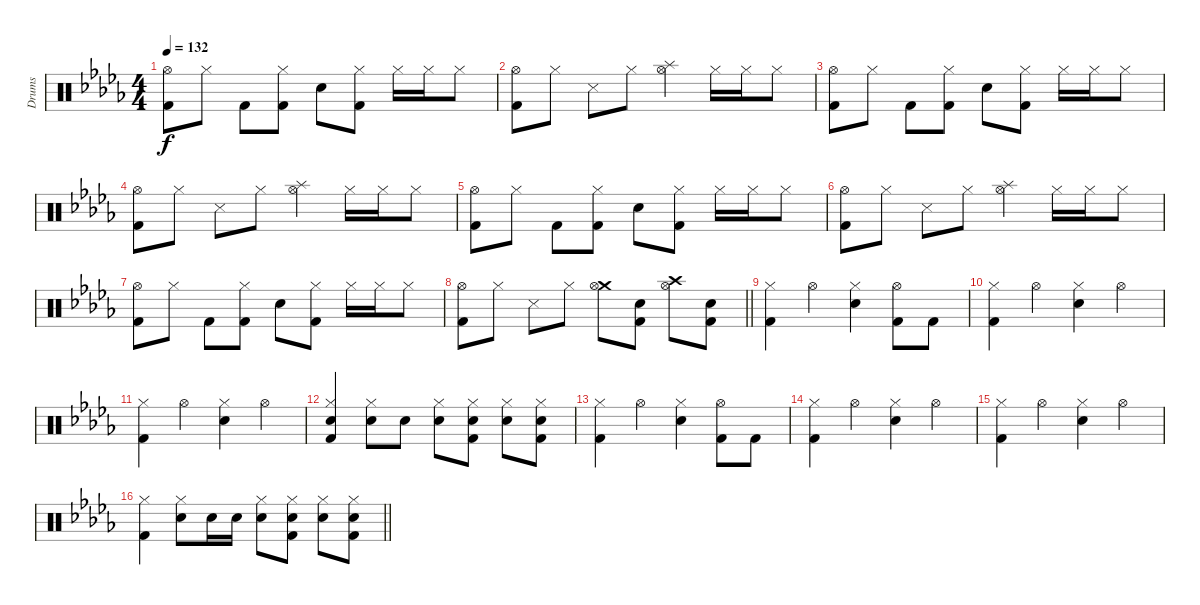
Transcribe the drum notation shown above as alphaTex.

\track ("Drums" "Drums") {instrument percussion}
\staff {score}
\articulation defaults
\ts (4 4)
\tempo 132
\clef neutral
\ks db
("Kick (hit) 2" "Hi-Hat (open)").8{dy f} "Hi-Hat (closed)".8 "Kick (hit) 2".8 ("Kick (hit) 2" "Hi-Hat (closed)").8 "Snare (hit) 2".8 ("Kick (hit) 2" "Hi-Hat (closed)").8 "Hi-Hat (closed)".16 "Hi-Hat (closed)".16 "Hi-Hat (closed)".8 |
("Hi-Hat (open)" "Kick (hit) 2").8 "Hi-Hat (closed)".8 "Snare (side stick) 3".8 "Hi-Hat (closed)".8 ("Splash (hit)" "Hi-Hat (open)").4 "Hi-Hat (closed)".16 "Hi-Hat (closed)".16 "Hi-Hat (closed)".8 |
("Kick (hit) 2" "Hi-Hat (open)").8 "Hi-Hat (closed)".8 "Kick (hit) 2".8 ("Kick (hit) 2" "Hi-Hat (closed)").8 "Snare (hit) 2".8 ("Kick (hit) 2" "Hi-Hat (closed)").8 "Hi-Hat (closed)".16 "Hi-Hat (closed)".16 "Hi-Hat (closed)".8 |
("Hi-Hat (open)" "Kick (hit) 2").8 "Hi-Hat (closed)".8 "Snare (side stick) 3".8 "Hi-Hat (closed)".8 ("Splash (hit)" "Hi-Hat (open)").4 "Hi-Hat (closed)".16 "Hi-Hat (closed)".16 "Hi-Hat (closed)".8 |
("Kick (hit) 2" "Hi-Hat (open)").8 "Hi-Hat (closed)".8 "Kick (hit) 2".8 ("Kick (hit) 2" "Hi-Hat (closed)").8 "Snare (hit) 2".8 ("Kick (hit) 2" "Hi-Hat (closed)").8 "Hi-Hat (closed)".16 "Hi-Hat (closed)".16 "Hi-Hat (closed)".8 |
("Hi-Hat (open)" "Kick (hit) 2").8 "Hi-Hat (closed)".8 "Snare (side stick) 3".8 "Hi-Hat (closed)".8 ("Splash (hit)" "Hi-Hat (open)").4 "Hi-Hat (closed)".16 "Hi-Hat (closed)".16 "Hi-Hat (closed)".8 |
("Kick (hit) 2" "Hi-Hat (open)").8 "Hi-Hat (closed)".8 "Kick (hit) 2".8 ("Kick (hit) 2" "Hi-Hat (closed)").8 "Snare (hit) 2".8 ("Kick (hit) 2" "Hi-Hat (closed)").8 "Hi-Hat (closed)".16 "Hi-Hat (closed)".16 "Hi-Hat (closed)".8 |
\barLineRight lightlight
("Hi-Hat (open)" "Kick (hit) 2").8 "Hi-Hat (closed)".8 "Snare (side stick) 3".8 "Hi-Hat (closed)".8 ("Crash medium (hit)" "Hi-Hat (open)").8 ("Kick (hit) 2" "Snare (hit) 2").8 ("Crash high (hit)" "Hi-Hat (open)").8 ("Kick (hit) 2" "Snare (hit) 2").8 |
("Kick (hit) 2" "Hi-Hat (closed)").4 "Hi-Hat (open)".4 ("Snare (hit) 2" "Hi-Hat (closed)").4 ("Hi-Hat (open)" "Kick (hit) 2").8 "Kick (hit) 2".8 |
("Kick (hit) 2" "Hi-Hat (closed)").4 "Hi-Hat (open)".4 ("Snare (hit) 2" "Hi-Hat (closed)").4 "Hi-Hat (open)".4 |
("Kick (hit) 2" "Hi-Hat (closed)").4 "Hi-Hat (open)".4 ("Snare (hit) 2" "Hi-Hat (closed)").4 "Hi-Hat (open)".4 |
("Kick (hit) 2" "Hi-Hat (closed)" "Snare (hit) 2").4 ("Snare (hit) 2" "Hi-Hat (closed)").8 "Snare (hit) 2".8 ("Snare (hit) 2" "Hi-Hat (closed)").8 ("Snare (hit) 2" "Hi-Hat (closed)" "Kick (hit) 2").8 ("Snare (hit) 2" "Hi-Hat (closed)").8 ("Snare (hit) 2" "Hi-Hat (closed)" "Kick (hit) 2").8 |
("Kick (hit) 2" "Hi-Hat (closed)").4 "Hi-Hat (open)".4 ("Snare (hit) 2" "Hi-Hat (closed)").4 ("Hi-Hat (open)" "Kick (hit) 2").8 "Kick (hit) 2".8 |
("Kick (hit) 2" "Hi-Hat (closed)").4 "Hi-Hat (open)".4 ("Snare (hit) 2" "Hi-Hat (closed)").4 "Hi-Hat (open)".4 |
("Kick (hit) 2" "Hi-Hat (closed)").4 "Hi-Hat (open)".4 ("Snare (hit) 2" "Hi-Hat (closed)").4 "Hi-Hat (open)".4 |
\barLineRight lightlight
("Kick (hit) 2" "Hi-Hat (closed)").4 ("Snare (hit) 2" "Hi-Hat (closed)").8 "Snare (hit) 2".16 "Snare (hit) 2".16 ("Snare (hit) 2" "Hi-Hat (closed)").8 ("Snare (hit) 2" "Hi-Hat (closed)" "Kick (hit) 2").8 ("Snare (hit) 2" "Hi-Hat (closed)").8 ("Snare (hit) 2" "Hi-Hat (closed)" "Kick (hit) 2").8
